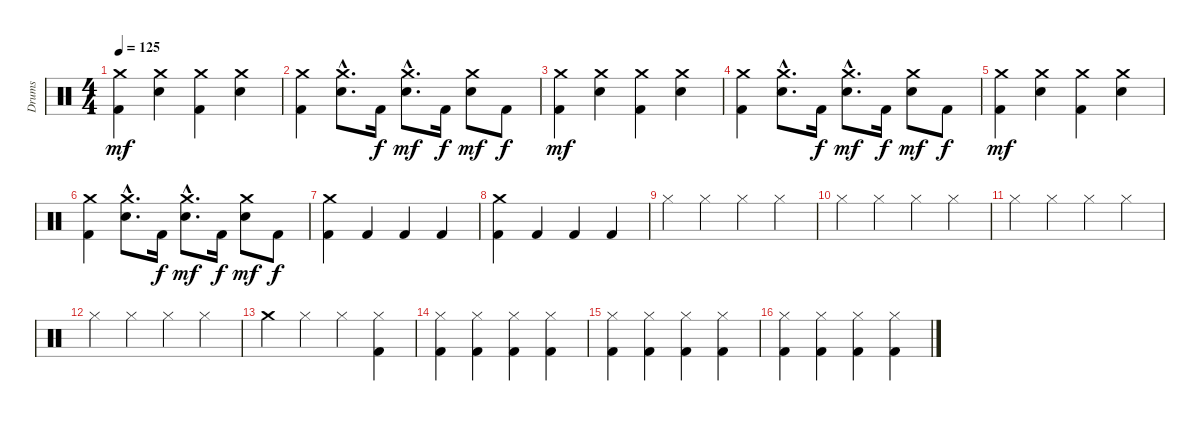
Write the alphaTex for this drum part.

\track ("Drums" "Drums") {instrument percussion}
\staff {score}
\articulation defaults
\ts (4 4)
\tempo 125
\clef neutral
\ks c
("Crash medium (hit)" "Kick (hit) 2").4{dy mf} ("Crash medium (hit)" "Electric Snare (hit)").4 ("Crash medium (hit)" "Kick (hit) 2").4 ("Crash medium (hit)" "Electric Snare (hit)").4 |
("Crash medium (hit)" "Kick (hit) 2").4 ("Crash medium (hit)"{hac} "Electric Snare (hit)"{hac}).8{d} "Kick (hit) 2".16{dy f} ("Crash medium (hit)"{hac} "Electric Snare (hit)"{hac}).8{d dy mf} "Kick (hit) 2".16{dy f} ("Crash medium (hit)" "Electric Snare (hit)").8{dy mf} "Kick (hit) 2".8{dy f} |
("Crash medium (hit)" "Kick (hit) 2").4{dy mf} ("Crash medium (hit)" "Electric Snare (hit)").4 ("Crash medium (hit)" "Kick (hit) 2").4 ("Crash medium (hit)" "Electric Snare (hit)").4 |
("Crash medium (hit)" "Kick (hit) 2").4 ("Crash medium (hit)"{hac} "Electric Snare (hit)"{hac}).8{d} "Kick (hit) 2".16{dy f} ("Crash medium (hit)"{hac} "Electric Snare (hit)"{hac}).8{d dy mf} "Kick (hit) 2".16{dy f} ("Crash medium (hit)" "Electric Snare (hit)").8{dy mf} "Kick (hit) 2".8{dy f} |
("Crash medium (hit)" "Kick (hit) 2").4{dy mf} ("Crash medium (hit)" "Electric Snare (hit)").4 ("Crash medium (hit)" "Kick (hit) 2").4 ("Crash medium (hit)" "Electric Snare (hit)").4 |
("Crash medium (hit)" "Kick (hit) 2").4 ("Crash medium (hit)"{hac} "Electric Snare (hit)"{hac}).8{d} "Kick (hit) 2".16{dy f} ("Crash medium (hit)"{hac} "Electric Snare (hit)"{hac}).8{d dy mf} "Kick (hit) 2".16{dy f} ("Crash medium (hit)" "Electric Snare (hit)").8{dy mf} "Kick (hit) 2".8{dy f} |
("Crash medium (hit)" "Kick (hit) 2").4 "Kick (hit) 2".4 "Kick (hit) 2".4 "Kick (hit) 2".4 |
("Crash medium (hit)" "Kick (hit) 2").4 "Kick (hit) 2".4 "Kick (hit) 2".4 "Kick (hit) 2".4 |
"Hi-Hat (closed)".4 "Hi-Hat (closed)".4 "Hi-Hat (closed)".4 "Hi-Hat (closed)".4 |
"Hi-Hat (closed)".4 "Hi-Hat (closed)".4 "Hi-Hat (closed)".4 "Hi-Hat (closed)".4 |
"Hi-Hat (closed)".4 "Hi-Hat (closed)".4 "Hi-Hat (closed)".4 "Hi-Hat (closed)".4 |
"Hi-Hat (closed)".4 "Hi-Hat (closed)".4 "Hi-Hat (closed)".4 "Hi-Hat (closed)".4 |
"Crash medium (hit)".4 "Hi-Hat (closed)".4 "Hi-Hat (closed)".4 ("Hi-Hat (closed)" "Kick (hit) 2").4 |
("Hi-Hat (closed)" "Kick (hit) 2").4 ("Hi-Hat (closed)" "Kick (hit) 2").4 ("Hi-Hat (closed)" "Kick (hit) 2").4 ("Hi-Hat (closed)" "Kick (hit) 2").4 |
("Hi-Hat (closed)" "Kick (hit) 2").4 ("Hi-Hat (closed)" "Kick (hit) 2").4 ("Hi-Hat (closed)" "Kick (hit) 2").4 ("Hi-Hat (closed)" "Kick (hit) 2").4 |
("Hi-Hat (closed)" "Kick (hit) 2").4 ("Hi-Hat (closed)" "Kick (hit) 2").4 ("Hi-Hat (closed)" "Kick (hit) 2").4 ("Hi-Hat (closed)" "Kick (hit) 2").4
